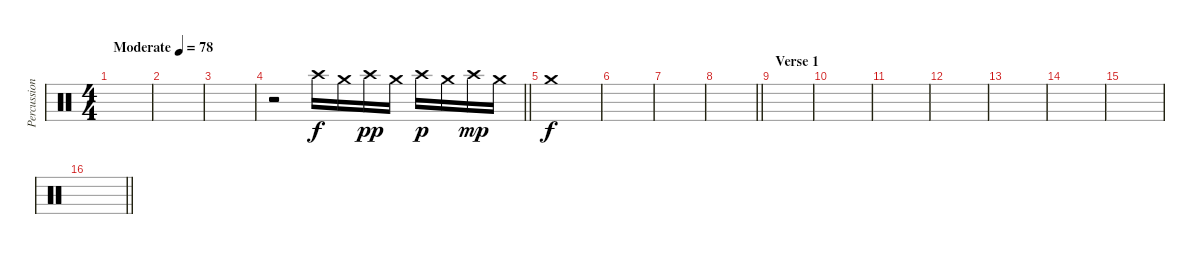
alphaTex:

\track ("Percussion" "Percussion") {instrument percussion}
\staff {score}
\articulation defaults
\ts (4 4)
\tempo (78 "Moderate")
\clef neutral
\ks c
|
|
|
\barLineRight lightlight
r.2 "Crash high (hit)".16 "Crash medium (hit)".16 "Crash high (hit)".16{dy pp} "Crash medium (hit)".16 "Crash high (hit)".16{dy p} "Crash medium (hit)".16 "Crash high (hit)".16{dy mp} "Crash medium (hit)".16 |
\section ("" "")
"Crash medium (hit)".1{dy f} |
|
|
\barLineRight lightlight
|
\section ("" "Verse 1")
|
|
|
|
|
|
|
\barLineRight lightlight
